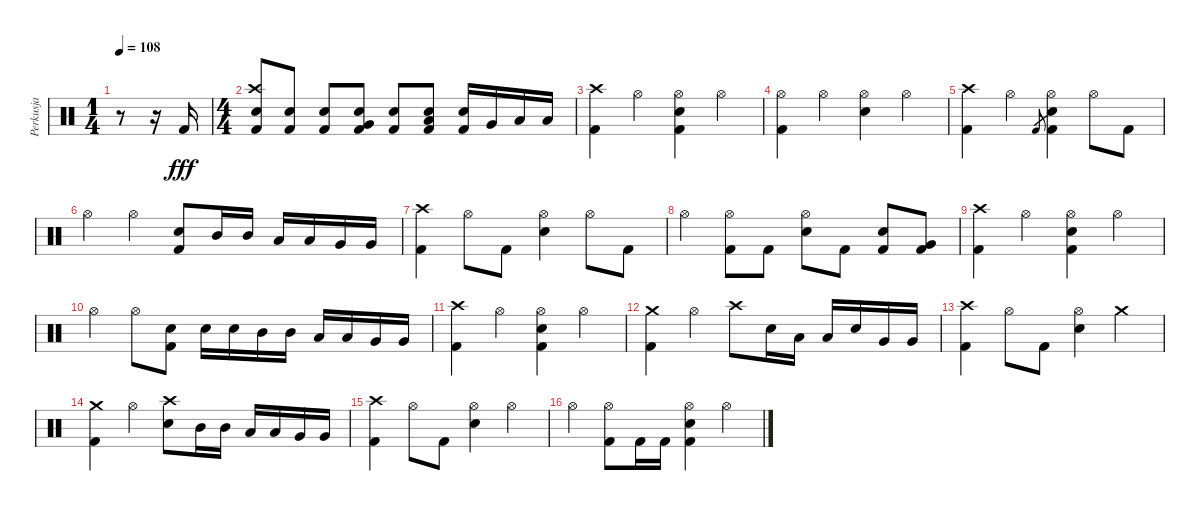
\track ("Perkusja" "Perkusja") {instrument percussion}
\staff {score}
\articulation defaults
\ts (1 4)
\tempo 108
\clef neutral
\ks c
r.8{dy fff} r.16 "Kick (hit) 2".16 |
\ts (4 4)
("Crash high (hit)" "Electric Snare (hit)" "Kick (hit) 2").8 ("Electric Snare (hit)" "Kick (hit) 2").8 ("Electric Snare (hit)" "Kick (hit) 2").8 ("Very Low Tom (hit)" "Electric Snare (hit)" "Kick (hit) 2").8 ("Electric Snare (hit)" "Kick (hit) 2").8 ("Low Floor Tom (hit)" "Electric Snare (hit)" "Kick (hit) 2").8 ("Electric Snare (hit)" "Kick (hit) 2").16 "Very Low Tom (hit)".16 "Low Floor Tom (hit)".16 "Low Floor Tom (hit)".16 |
("Crash high (hit)" "Kick (hit) 2").4 "Hi-Hat (open)".4 ("Hi-Hat (open)" "Electric Snare (hit)" "Kick (hit) 2").4 "Hi-Hat (open)".4 |
("Hi-Hat (open)" "Kick (hit) 2").4 "Hi-Hat (open)".4 ("Hi-Hat (open)" "Electric Snare (hit)").4 "Hi-Hat (open)".4 |
("Crash high (hit)" "Kick (hit) 2").4 "Hi-Hat (open)".4 "Kick (hit) 2".8{gr} ("Hi-Hat (open)" "Electric Snare (hit)" "Kick (hit) 2").4 "Hi-Hat (open)".8 "Kick (hit) 2".8 |
"Hi-Hat (open)".4 "Hi-Hat (open)".4 ("Electric Snare (hit)" "Kick (hit) 2").8 "Mid Tom (hit)".16 "Mid Tom (hit)".16 "Low Tom (hit)".16 "Low Tom (hit)".16 "Very Low Tom (hit)".16 "Very Low Tom (hit)".16 |
("Crash high (hit)" "Kick (hit) 2").4 "Hi-Hat (open)".8 "Kick (hit) 2".8 ("Hi-Hat (open)" "Electric Snare (hit)").4 "Hi-Hat (open)".8 "Kick (hit) 2".8 |
"Hi-Hat (open)".4 ("Hi-Hat (open)" "Kick (hit) 2").8 "Kick (hit) 2".8 ("Hi-Hat (open)" "Electric Snare (hit)").8 "Kick (hit) 2".8 ("Electric Snare (hit)" "Kick (hit) 2").8 ("Very Low Tom (hit)" "Kick (hit) 2").8 |
("Crash high (hit)" "Kick (hit) 2").4 "Hi-Hat (open)".4 ("Hi-Hat (open)" "Electric Snare (hit)" "Kick (hit) 2").4 "Hi-Hat (open)".4 |
"Hi-Hat (open)".4 "Hi-Hat (open)".8 ("Electric Snare (hit)" "Kick (hit) 2").8 "Electric Snare (hit)".16 "Electric Snare (hit)".16 "Mid Tom (hit)".16 "Mid Tom (hit)".16 "Low Tom (hit)".16 "Low Tom (hit)".16 "Very Low Tom (hit)".16 "Very Low Tom (hit)".16 |
("Crash high (hit)" "Kick (hit) 2").4 "Hi-Hat (open)".4 ("Hi-Hat (open)" "Electric Snare (hit)" "Kick (hit) 2").4 "Hi-Hat (open)".4 |
("Crash medium (hit)" "Kick (hit) 2").4 "Hi-Hat (open)".4 "Crash high (hit)".8 "Electric Snare (hit)".16 "Low Tom (hit)".16 "Low Tom (hit)".16 "Electric Snare (hit)".16 "Very Low Tom (hit)".16 "Very Low Tom (hit)".16 |
("Crash high (hit)" "Kick (hit) 2").4 "Hi-Hat (open)".8 "Kick (hit) 2".8 ("Hi-Hat (open)" "Electric Snare (hit)").4 "Crash medium (hit)".4 |
("Crash medium (hit)" "Kick (hit) 2").4 "Hi-Hat (open)".4 ("Crash high (hit)" "Electric Snare (hit)").8 "Mid Tom (hit)".16 "Mid Tom (hit)".16 "Low Tom (hit)".16 "Low Tom (hit)".16 "Very Low Tom (hit)".16 "Very Low Tom (hit)".16 |
("Crash high (hit)" "Kick (hit) 2").4 "Hi-Hat (open)".8 "Kick (hit) 2".8 ("Hi-Hat (open)" "Electric Snare (hit)").4 "Hi-Hat (open)".4 |
"Hi-Hat (open)".4 ("Hi-Hat (open)" "Kick (hit) 2").8 "Kick (hit) 2".16 "Kick (hit) 2".16 ("Hi-Hat (open)" "Electric Snare (hit)" "Kick (hit) 2").4 "Hi-Hat (open)".4
